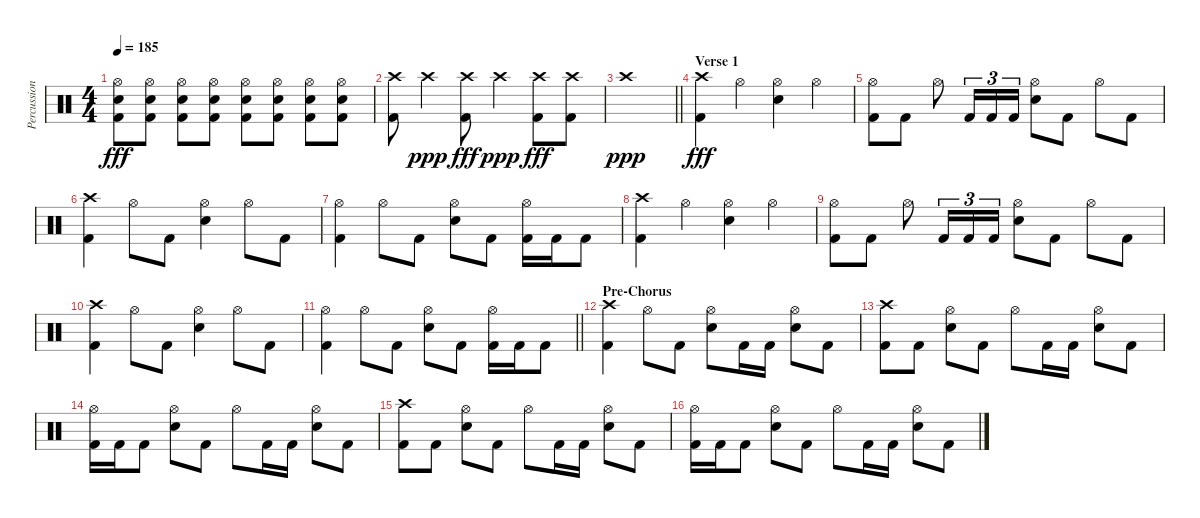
\track ("Percussion" "Percussion") {instrument percussion}
\staff {score}
\articulation defaults
\ts (4 4)
\tempo 185
\clef neutral
\ks c
("Hi-Hat (open)" "Electric Snare (hit)" "Kick (hit) 2").8{dy fff} ("Hi-Hat (open)" "Electric Snare (hit)" "Kick (hit) 2").8 ("Hi-Hat (open)" "Electric Snare (hit)" "Kick (hit) 2").8 ("Hi-Hat (open)" "Electric Snare (hit)" "Kick (hit) 2").8 ("Hi-Hat (open)" "Electric Snare (hit)" "Kick (hit) 2").8 ("Hi-Hat (open)" "Electric Snare (hit)" "Kick (hit) 2").8 ("Hi-Hat (open)" "Electric Snare (hit)" "Kick (hit) 2").8 ("Hi-Hat (open)" "Electric Snare (hit)" "Kick (hit) 2").8 |
("Crash high (hit)" "Kick (hit) 2").8 "Crash high (hit)".4{dy ppp} ("Crash high (hit)" "Kick (hit) 2").8{dy fff} "Crash high (hit)".4{dy ppp} ("Crash high (hit)" "Kick (hit) 2").8{dy fff} ("Crash high (hit)" "Kick (hit) 2").8 |
\barLineRight lightlight "Crash high (hit)".1{dy ppp}
|
\section ("" "Verse 1")
("Crash high (hit)" "Kick (hit) 2").4{dy fff} "Hi-Hat (open)".4 ("Hi-Hat (open)" "Electric Snare (hit)").4 "Hi-Hat (open)".4 |
("Hi-Hat (open)" "Kick (hit) 2").8 "Kick (hit) 2".8 "Hi-Hat (open)".8 "Kick (hit) 2".16{tu (3 2)} "Kick (hit) 2".16{tu (3 2)} "Kick (hit) 2".16{tu (3 2)} ("Hi-Hat (open)" "Electric Snare (hit)").8 "Kick (hit) 2".8 "Hi-Hat (open)".8 "Kick (hit) 2".8 |
("Crash high (hit)" "Kick (hit) 2").4 "Hi-Hat (open)".8 "Kick (hit) 2".8 ("Hi-Hat (open)" "Electric Snare (hit)").4 "Hi-Hat (open)".8 "Kick (hit) 2".8 |
("Hi-Hat (open)" "Kick (hit) 2").4 "Hi-Hat (open)".8 "Kick (hit) 2".8 ("Hi-Hat (open)" "Electric Snare (hit)").8 "Kick (hit) 2".8 ("Hi-Hat (open)" "Kick (hit) 2").16 "Kick (hit) 2".16 "Kick (hit) 2".8 |
("Crash high (hit)" "Kick (hit) 2").4 "Hi-Hat (open)".4 ("Hi-Hat (open)" "Electric Snare (hit)").4 "Hi-Hat (open)".4 |
("Hi-Hat (open)" "Kick (hit) 2").8 "Kick (hit) 2".8 "Hi-Hat (open)".8 "Kick (hit) 2".16{tu (3 2)} "Kick (hit) 2".16{tu (3 2)} "Kick (hit) 2".16{tu (3 2)} ("Hi-Hat (open)" "Electric Snare (hit)").8 "Kick (hit) 2".8 "Hi-Hat (open)".8 "Kick (hit) 2".8 |
("Crash high (hit)" "Kick (hit) 2").4 "Hi-Hat (open)".8 "Kick (hit) 2".8 ("Hi-Hat (open)" "Electric Snare (hit)").4 "Hi-Hat (open)".8 "Kick (hit) 2".8 |
\barLineRight lightlight
("Hi-Hat (open)" "Kick (hit) 2").4 "Hi-Hat (open)".8 "Kick (hit) 2".8 ("Hi-Hat (open)" "Electric Snare (hit)").8 "Kick (hit) 2".8 ("Hi-Hat (open)" "Kick (hit) 2").16 "Kick (hit) 2".16 "Kick (hit) 2".8 |
\section ("" "Pre-Chorus")
("Crash high (hit)" "Kick (hit) 2").4 "Hi-Hat (open)".8 "Kick (hit) 2".8 ("Hi-Hat (open)" "Electric Snare (hit)").8 "Kick (hit) 2".16 "Kick (hit) 2".16 ("Hi-Hat (open)" "Electric Snare (hit)").8 "Kick (hit) 2".8 |
("Crash high (hit)" "Kick (hit) 2").8 "Kick (hit) 2".8 ("Hi-Hat (open)" "Electric Snare (hit)").8 "Kick (hit) 2".8 "Hi-Hat (open)".8 "Kick (hit) 2".16 "Kick (hit) 2".16 ("Hi-Hat (open)" "Electric Snare (hit)").8 "Kick (hit) 2".8 |
("Hi-Hat (open)" "Kick (hit) 2").16 "Kick (hit) 2".16 "Kick (hit) 2".8 ("Hi-Hat (open)" "Electric Snare (hit)").8 "Kick (hit) 2".8 "Hi-Hat (open)".8 "Kick (hit) 2".16 "Kick (hit) 2".16 ("Hi-Hat (open)" "Electric Snare (hit)").8 "Kick (hit) 2".8 |
("Crash high (hit)" "Kick (hit) 2").8 "Kick (hit) 2".8 ("Hi-Hat (open)" "Electric Snare (hit)").8 "Kick (hit) 2".8 "Hi-Hat (open)".8 "Kick (hit) 2".16 "Kick (hit) 2".16 ("Hi-Hat (open)" "Electric Snare (hit)").8 "Kick (hit) 2".8 |
("Hi-Hat (open)" "Kick (hit) 2").16 "Kick (hit) 2".16 "Kick (hit) 2".8 ("Hi-Hat (open)" "Electric Snare (hit)").8 "Kick (hit) 2".8 "Hi-Hat (open)".8 "Kick (hit) 2".16 "Kick (hit) 2".16 ("Hi-Hat (open)" "Electric Snare (hit)").8 "Kick (hit) 2".8
